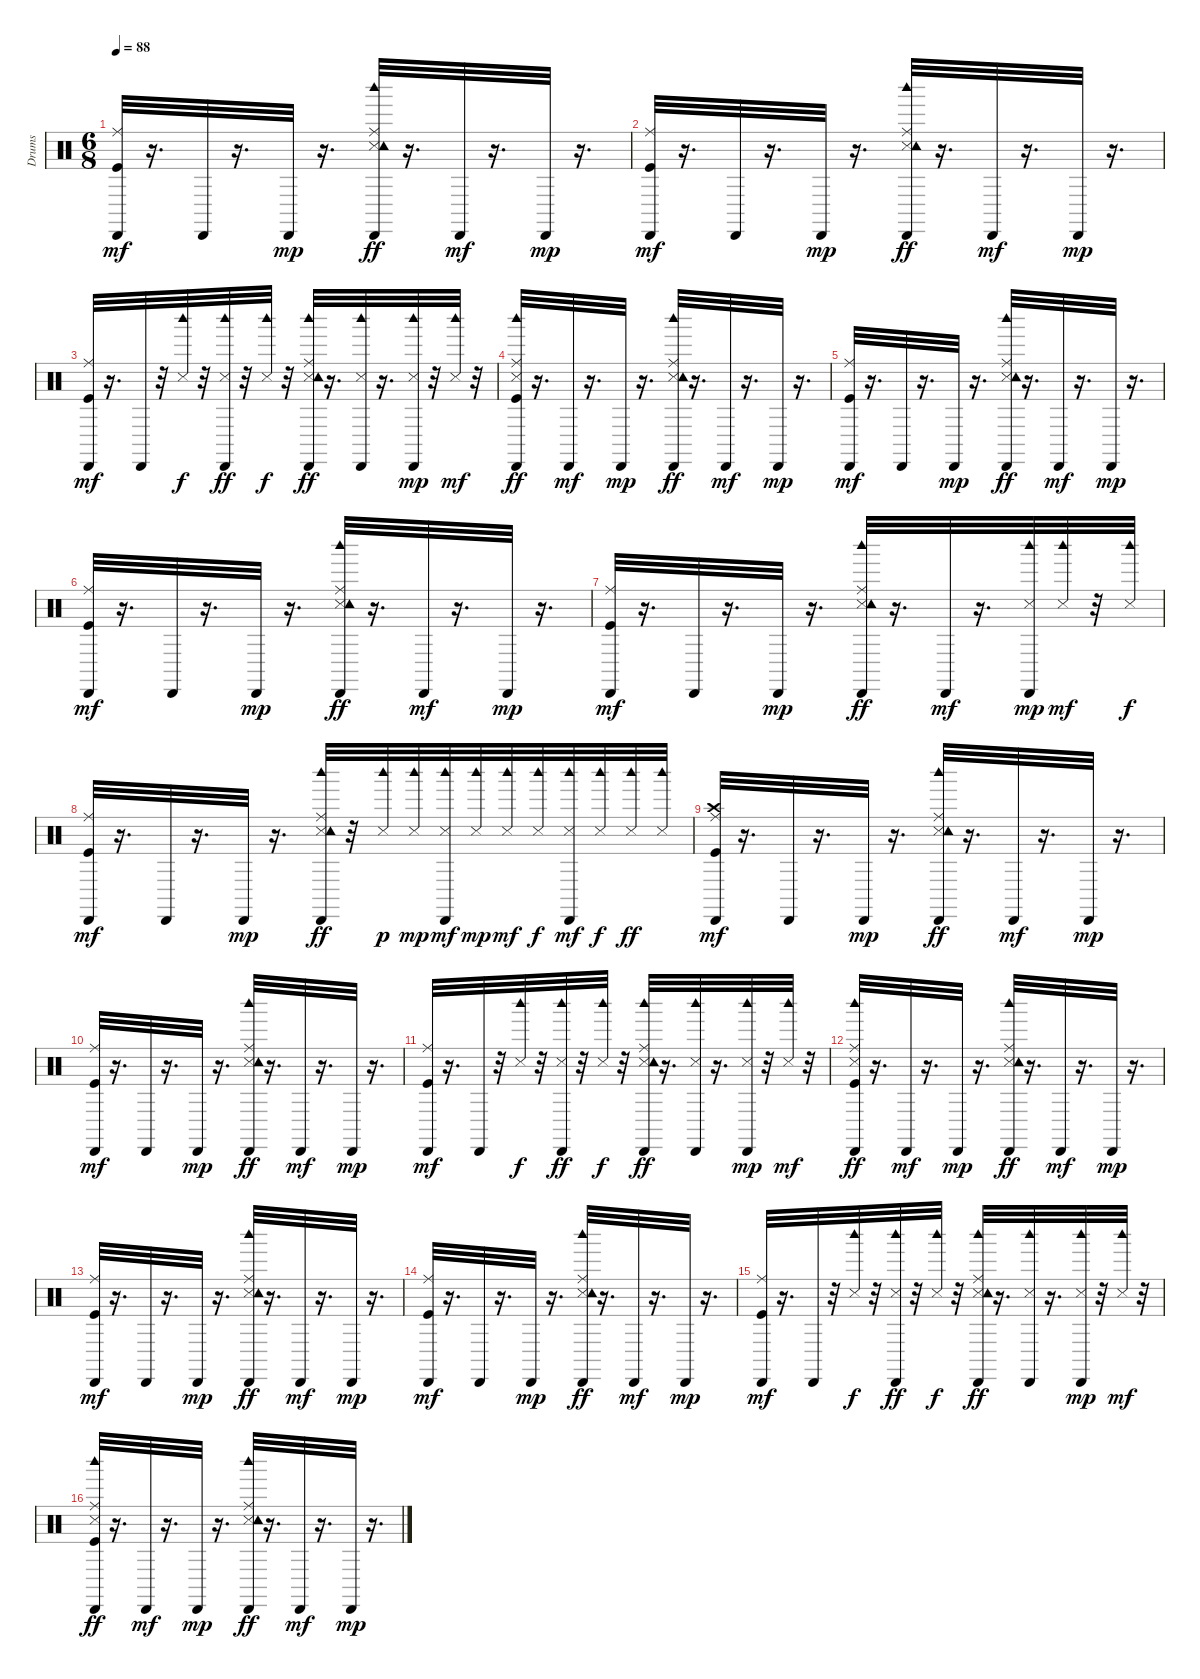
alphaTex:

\track ("Drums               " "Drums     ") {instrument percussion}
\staff {score}
\articulation defaults
\ts (6 8)
\tempo 88
\clef neutral
\ks c
("Kick (hit)" "Ride (middle)" "Cabasa (hit)").32{dy mf} r.16{d} "Cabasa (hit)".32 r.16{d} "Cabasa (hit)".32{dy mp} r.16{d} ("Snare (side stick) 3" "Ride (middle)" "Tambourine (hit)" "Cabasa (hit)" "Woodblock high (hit)").32{dy ff} r.16{d} "Cabasa (hit)".32{dy mf} r.16{d} "Cabasa (hit)".32{dy mp} r.16{d} |
("Kick (hit)" "Ride (middle)" "Cabasa (hit)").32{dy mf} r.16{d} "Cabasa (hit)".32 r.16{d} "Cabasa (hit)".32{dy mp} r.16{d} ("Snare (side stick) 3" "Ride (middle)" "Tambourine (hit)" "Cabasa (hit)" "Woodblock high (hit)").32{dy ff} r.16{d} "Cabasa (hit)".32{dy mf} r.16{d} "Cabasa (hit)".32{dy mp} r.16{d} |
("Kick (hit)" "Ride (middle)" "Cabasa (hit)").32{dy mf} r.16{d} "Cabasa (hit)".32 r.32 ("Snare (side stick) 3" "Woodblock high (hit)").32{dy f} r.32 ("Snare (side stick) 3" "Cabasa (hit)" "Woodblock high (hit)").32{dy ff} r.32 ("Snare (side stick) 3" "Woodblock high (hit)").32{dy f} r.32 ("Snare (side stick) 3" "Ride (middle)" "Tambourine (hit)" "Cabasa (hit)" "Woodblock high (hit)").32{dy ff} r.16{d} ("Snare (side stick) 3" "Cabasa (hit)" "Woodblock high (hit)").32 r.16{d} ("Snare (side stick) 3" "Cabasa (hit)" "Woodblock high (hit)").32{dy mp} r.32 ("Snare (side stick) 3" "Woodblock high (hit)").32{dy mf} r.32 |
("Kick (hit)" "Snare (side stick) 3" "Ride (middle)" "Cabasa (hit)" "Woodblock high (hit)").32{dy ff} r.16{d} "Cabasa (hit)".32{dy mf} r.16{d} "Cabasa (hit)".32{dy mp} r.16{d} ("Snare (side stick) 3" "Ride (middle)" "Tambourine (hit)" "Cabasa (hit)" "Woodblock high (hit)").32{dy ff} r.16{d} "Cabasa (hit)".32{dy mf} r.16{d} "Cabasa (hit)".32{dy mp} r.16{d} |
("Kick (hit)" "Ride (middle)" "Cabasa (hit)").32{dy mf} r.16{d} "Cabasa (hit)".32 r.16{d} "Cabasa (hit)".32{dy mp} r.16{d} ("Snare (side stick) 3" "Ride (middle)" "Tambourine (hit)" "Cabasa (hit)" "Woodblock high (hit)").32{dy ff} r.16{d} "Cabasa (hit)".32{dy mf} r.16{d} "Cabasa (hit)".32{dy mp} r.16{d} |
("Kick (hit)" "Ride (middle)" "Cabasa (hit)").32{dy mf} r.16{d} "Cabasa (hit)".32 r.16{d} "Cabasa (hit)".32{dy mp} r.16{d} ("Snare (side stick) 3" "Ride (middle)" "Tambourine (hit)" "Cabasa (hit)" "Woodblock high (hit)").32{dy ff} r.16{d} "Cabasa (hit)".32{dy mf} r.16{d} "Cabasa (hit)".32{dy mp} r.16{d} |
("Kick (hit)" "Ride (middle)" "Cabasa (hit)").32{dy mf} r.16{d} "Cabasa (hit)".32 r.16{d} "Cabasa (hit)".32{dy mp} r.16{d} ("Snare (side stick) 3" "Ride (middle)" "Tambourine (hit)" "Cabasa (hit)" "Woodblock high (hit)").32{dy ff} r.16{d} "Cabasa (hit)".32{dy mf} r.16{d} ("Snare (side stick) 3" "Cabasa (hit)" "Woodblock high (hit)").32{dy mp} ("Snare (side stick) 3" "Woodblock high (hit)").32{dy mf} r.32 ("Snare (side stick) 3" "Woodblock high (hit)").32{dy f} |
("Kick (hit)" "Ride (middle)" "Cabasa (hit)").32{dy mf} r.16{d} "Cabasa (hit)".32 r.16{d} "Cabasa (hit)".32{dy mp} r.16{d} ("Snare (side stick) 3" "Ride (middle)" "Tambourine (hit)" "Cabasa (hit)" "Woodblock high (hit)").32{dy ff} r.32 ("Snare (side stick) 3" "Woodblock high (hit)").32{dy p} ("Snare (side stick) 3" "Woodblock high (hit)").32{dy mp} ("Snare (side stick) 3" "Cabasa (hit)" "Woodblock high (hit)").32{dy mf} ("Snare (side stick) 3" "Woodblock high (hit)").32{dy mp} ("Snare (side stick) 3" "Woodblock high (hit)").32{dy mf} ("Snare (side stick) 3" "Woodblock high (hit)").32{dy f} ("Snare (side stick) 3" "Cabasa (hit)" "Woodblock high (hit)").32{dy mf} ("Snare (side stick) 3" "Woodblock high (hit)").32{dy f} ("Snare (side stick) 3" "Woodblock high (hit)").32{dy ff} ("Snare (side stick) 3" "Woodblock high (hit)").32 |
("Kick (hit)" "Ride (middle)" "Cabasa (hit)" "Crash high (hit)").32{dy mf} r.16{d} "Cabasa (hit)".32 r.16{d} "Cabasa (hit)".32{dy mp} r.16{d} ("Snare (side stick) 3" "Ride (middle)" "Tambourine (hit)" "Cabasa (hit)" "Woodblock high (hit)").32{dy ff} r.16{d} "Cabasa (hit)".32{dy mf} r.16{d} "Cabasa (hit)".32{dy mp} r.16{d} |
("Kick (hit)" "Ride (middle)" "Cabasa (hit)").32{dy mf} r.16{d} "Cabasa (hit)".32 r.16{d} "Cabasa (hit)".32{dy mp} r.16{d} ("Snare (side stick) 3" "Ride (middle)" "Tambourine (hit)" "Cabasa (hit)" "Woodblock high (hit)").32{dy ff} r.16{d} "Cabasa (hit)".32{dy mf} r.16{d} "Cabasa (hit)".32{dy mp} r.16{d} |
("Kick (hit)" "Ride (middle)" "Cabasa (hit)").32{dy mf} r.16{d} "Cabasa (hit)".32 r.32 ("Snare (side stick) 3" "Woodblock high (hit)").32{dy f} r.32 ("Snare (side stick) 3" "Cabasa (hit)" "Woodblock high (hit)").32{dy ff} r.32 ("Snare (side stick) 3" "Woodblock high (hit)").32{dy f} r.32 ("Snare (side stick) 3" "Ride (middle)" "Tambourine (hit)" "Cabasa (hit)" "Woodblock high (hit)").32{dy ff} r.16{d} ("Snare (side stick) 3" "Cabasa (hit)" "Woodblock high (hit)").32 r.16{d} ("Snare (side stick) 3" "Cabasa (hit)" "Woodblock high (hit)").32{dy mp} r.32 ("Snare (side stick) 3" "Woodblock high (hit)").32{dy mf} r.32 |
("Kick (hit)" "Snare (side stick) 3" "Ride (middle)" "Cabasa (hit)" "Woodblock high (hit)").32{dy ff} r.16{d} "Cabasa (hit)".32{dy mf} r.16{d} "Cabasa (hit)".32{dy mp} r.16{d} ("Snare (side stick) 3" "Ride (middle)" "Tambourine (hit)" "Cabasa (hit)" "Woodblock high (hit)").32{dy ff} r.16{d} "Cabasa (hit)".32{dy mf} r.16{d} "Cabasa (hit)".32{dy mp} r.16{d} |
("Kick (hit)" "Ride (middle)" "Cabasa (hit)").32{dy mf} r.16{d} "Cabasa (hit)".32 r.16{d} "Cabasa (hit)".32{dy mp} r.16{d} ("Snare (side stick) 3" "Ride (middle)" "Tambourine (hit)" "Cabasa (hit)" "Woodblock high (hit)").32{dy ff} r.16{d} "Cabasa (hit)".32{dy mf} r.16{d} "Cabasa (hit)".32{dy mp} r.16{d} |
("Kick (hit)" "Ride (middle)" "Cabasa (hit)").32{dy mf} r.16{d} "Cabasa (hit)".32 r.16{d} "Cabasa (hit)".32{dy mp} r.16{d} ("Snare (side stick) 3" "Ride (middle)" "Tambourine (hit)" "Cabasa (hit)" "Woodblock high (hit)").32{dy ff} r.16{d} "Cabasa (hit)".32{dy mf} r.16{d} "Cabasa (hit)".32{dy mp} r.16{d} |
("Kick (hit)" "Ride (middle)" "Cabasa (hit)").32{dy mf} r.16{d} "Cabasa (hit)".32 r.32 ("Snare (side stick) 3" "Woodblock high (hit)").32{dy f} r.32 ("Snare (side stick) 3" "Cabasa (hit)" "Woodblock high (hit)").32{dy ff} r.32 ("Snare (side stick) 3" "Woodblock high (hit)").32{dy f} r.32 ("Snare (side stick) 3" "Ride (middle)" "Tambourine (hit)" "Cabasa (hit)" "Woodblock high (hit)").32{dy ff} r.16{d} ("Snare (side stick) 3" "Cabasa (hit)" "Woodblock high (hit)").32 r.16{d} ("Snare (side stick) 3" "Cabasa (hit)" "Woodblock high (hit)").32{dy mp} r.32 ("Snare (side stick) 3" "Woodblock high (hit)").32{dy mf} r.32 |
("Kick (hit)" "Snare (side stick) 3" "Ride (middle)" "Cabasa (hit)" "Woodblock high (hit)").32{dy ff} r.16{d} "Cabasa (hit)".32{dy mf} r.16{d} "Cabasa (hit)".32{dy mp} r.16{d} ("Snare (side stick) 3" "Ride (middle)" "Tambourine (hit)" "Cabasa (hit)" "Woodblock high (hit)").32{dy ff} r.16{d} "Cabasa (hit)".32{dy mf} r.16{d} "Cabasa (hit)".32{dy mp} r.16{d}
